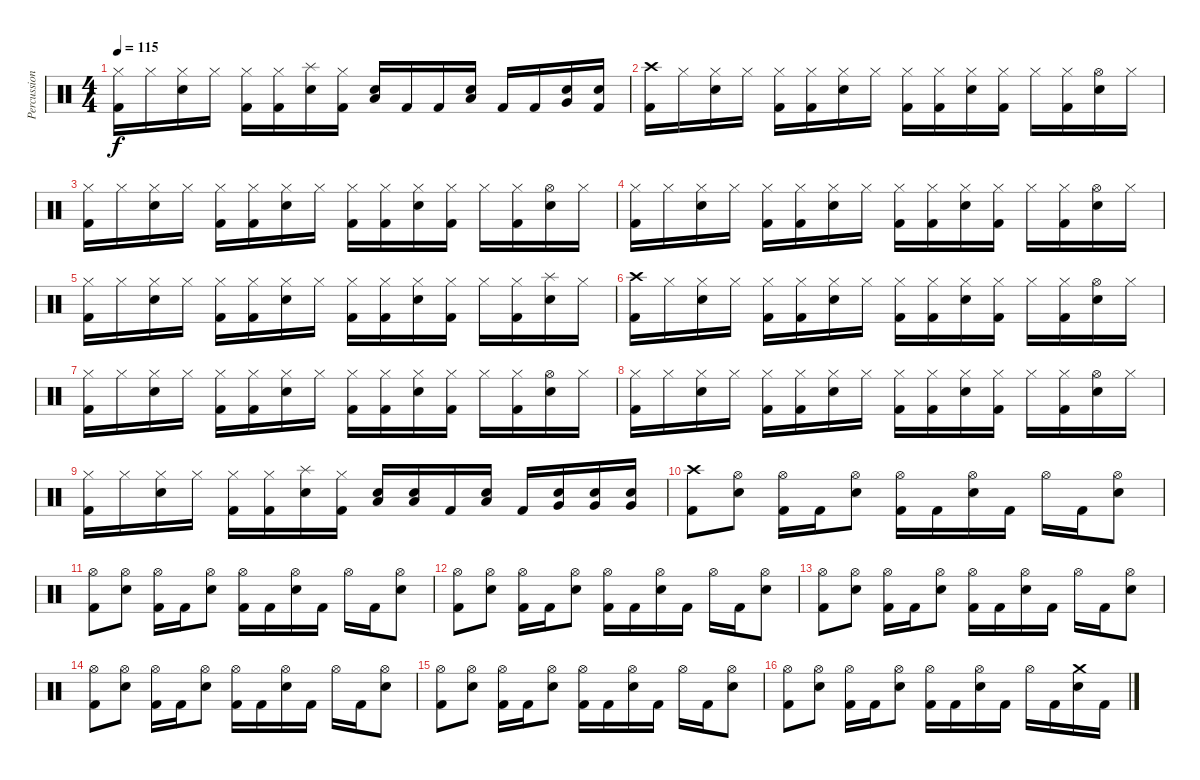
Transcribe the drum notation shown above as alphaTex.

\track ("Percussion" "Percussion") {instrument percussion}
\staff {score}
\articulation defaults
\ts (4 4)
\tempo 115
\clef neutral
\ks c
("Hi-Hat (closed)" "Kick (hit) 2").16{dy f} "Hi-Hat (closed)".16 ("Hi-Hat (closed)" "Electric Snare (hit)").16 "Hi-Hat (closed)".16 ("Hi-Hat (closed)" "Kick (hit) 2").16 ("Hi-Hat (closed)" "Kick (hit) 2").16 ("Splash (hit)" "Electric Snare (hit)").16 ("Hi-Hat (closed)" "Kick (hit) 2").16 ("Low Tom (hit)" "Electric Snare (hit)").16 "Kick (hit) 2".16 "Kick (hit) 2".16 ("Low Tom (hit)" "Electric Snare (hit)").16 "Kick (hit) 2".16 "Kick (hit) 2".16 ("Very Low Tom (hit)" "Electric Snare (hit)").16 ("Electric Snare (hit)" "Kick (hit) 2").16 |
("Crash high (hit)" "Kick (hit) 2").16 "Hi-Hat (closed)".16 ("Hi-Hat (closed)" "Electric Snare (hit)").16 "Hi-Hat (closed)".16 ("Hi-Hat (closed)" "Kick (hit) 2").16 ("Hi-Hat (closed)" "Kick (hit) 2").16 ("Hi-Hat (closed)" "Electric Snare (hit)").16 "Hi-Hat (closed)".16 ("Hi-Hat (closed)" "Kick (hit) 2").16 ("Hi-Hat (closed)" "Kick (hit) 2").16 ("Hi-Hat (closed)" "Electric Snare (hit)").16 ("Hi-Hat (closed)" "Kick (hit) 2").16 "Hi-Hat (closed)".16 ("Hi-Hat (closed)" "Kick (hit) 2").16 ("Hi-Hat (open)" "Electric Snare (hit)").16 "Hi-Hat (closed)".16 |
("Hi-Hat (closed)" "Kick (hit) 2").16 "Hi-Hat (closed)".16 ("Hi-Hat (closed)" "Electric Snare (hit)").16 "Hi-Hat (closed)".16 ("Hi-Hat (closed)" "Kick (hit) 2").16 ("Hi-Hat (closed)" "Kick (hit) 2").16 ("Hi-Hat (closed)" "Electric Snare (hit)").16 "Hi-Hat (closed)".16 ("Hi-Hat (closed)" "Kick (hit) 2").16 ("Hi-Hat (closed)" "Kick (hit) 2").16 ("Hi-Hat (closed)" "Electric Snare (hit)").16 ("Hi-Hat (closed)" "Kick (hit) 2").16 "Hi-Hat (closed)".16 ("Hi-Hat (closed)" "Kick (hit) 2").16 ("Hi-Hat (open)" "Electric Snare (hit)").16 "Hi-Hat (closed)".16 |
("Hi-Hat (closed)" "Kick (hit) 2").16 "Hi-Hat (closed)".16 ("Hi-Hat (closed)" "Electric Snare (hit)").16 "Hi-Hat (closed)".16 ("Hi-Hat (closed)" "Kick (hit) 2").16 ("Hi-Hat (closed)" "Kick (hit) 2").16 ("Hi-Hat (closed)" "Electric Snare (hit)").16 "Hi-Hat (closed)".16 ("Hi-Hat (closed)" "Kick (hit) 2").16 ("Hi-Hat (closed)" "Kick (hit) 2").16 ("Hi-Hat (closed)" "Electric Snare (hit)").16 ("Hi-Hat (closed)" "Kick (hit) 2").16 "Hi-Hat (closed)".16 ("Hi-Hat (closed)" "Kick (hit) 2").16 ("Hi-Hat (open)" "Electric Snare (hit)").16 "Hi-Hat (closed)".16 |
("Hi-Hat (closed)" "Kick (hit) 2").16 "Hi-Hat (closed)".16 ("Hi-Hat (closed)" "Electric Snare (hit)").16 "Hi-Hat (closed)".16 ("Hi-Hat (closed)" "Kick (hit) 2").16 ("Hi-Hat (closed)" "Kick (hit) 2").16 ("Hi-Hat (closed)" "Electric Snare (hit)").16 "Hi-Hat (closed)".16 ("Hi-Hat (closed)" "Kick (hit) 2").16 ("Hi-Hat (closed)" "Kick (hit) 2").16 ("Hi-Hat (closed)" "Electric Snare (hit)").16 ("Hi-Hat (closed)" "Kick (hit) 2").16 "Hi-Hat (closed)".16 ("Hi-Hat (closed)" "Kick (hit) 2").16 ("Splash (hit)" "Electric Snare (hit)").16 "Hi-Hat (closed)".16 |
("Crash high (hit)" "Kick (hit) 2").16 "Hi-Hat (closed)".16 ("Hi-Hat (closed)" "Electric Snare (hit)").16 "Hi-Hat (closed)".16 ("Hi-Hat (closed)" "Kick (hit) 2").16 ("Hi-Hat (closed)" "Kick (hit) 2").16 ("Hi-Hat (closed)" "Electric Snare (hit)").16 "Hi-Hat (closed)".16 ("Hi-Hat (closed)" "Kick (hit) 2").16 ("Hi-Hat (closed)" "Kick (hit) 2").16 ("Hi-Hat (closed)" "Electric Snare (hit)").16 ("Hi-Hat (closed)" "Kick (hit) 2").16 "Hi-Hat (closed)".16 ("Hi-Hat (closed)" "Kick (hit) 2").16 ("Hi-Hat (open)" "Electric Snare (hit)").16 "Hi-Hat (closed)".16 |
("Hi-Hat (closed)" "Kick (hit) 2").16 "Hi-Hat (closed)".16 ("Hi-Hat (closed)" "Electric Snare (hit)").16 "Hi-Hat (closed)".16 ("Hi-Hat (closed)" "Kick (hit) 2").16 ("Hi-Hat (closed)" "Kick (hit) 2").16 ("Hi-Hat (closed)" "Electric Snare (hit)").16 "Hi-Hat (closed)".16 ("Hi-Hat (closed)" "Kick (hit) 2").16 ("Hi-Hat (closed)" "Kick (hit) 2").16 ("Hi-Hat (closed)" "Electric Snare (hit)").16 ("Hi-Hat (closed)" "Kick (hit) 2").16 "Hi-Hat (closed)".16 ("Hi-Hat (closed)" "Kick (hit) 2").16 ("Hi-Hat (open)" "Electric Snare (hit)").16 "Hi-Hat (closed)".16 |
("Hi-Hat (closed)" "Kick (hit) 2").16 "Hi-Hat (closed)".16 ("Hi-Hat (closed)" "Electric Snare (hit)").16 "Hi-Hat (closed)".16 ("Hi-Hat (closed)" "Kick (hit) 2").16 ("Hi-Hat (closed)" "Kick (hit) 2").16 ("Hi-Hat (closed)" "Electric Snare (hit)").16 "Hi-Hat (closed)".16 ("Hi-Hat (closed)" "Kick (hit) 2").16 ("Hi-Hat (closed)" "Kick (hit) 2").16 ("Hi-Hat (closed)" "Electric Snare (hit)").16 ("Hi-Hat (closed)" "Kick (hit) 2").16 "Hi-Hat (closed)".16 ("Hi-Hat (closed)" "Kick (hit) 2").16 ("Hi-Hat (open)" "Electric Snare (hit)").16 "Hi-Hat (closed)".16 |
("Hi-Hat (closed)" "Kick (hit) 2").16 "Hi-Hat (closed)".16 ("Hi-Hat (closed)" "Electric Snare (hit)").16 "Hi-Hat (closed)".16 ("Hi-Hat (closed)" "Kick (hit) 2").16 ("Hi-Hat (closed)" "Kick (hit) 2").16 ("Splash (hit)" "Electric Snare (hit)").16 ("Hi-Hat (closed)" "Kick (hit) 2").16 ("Low Tom (hit)" "Electric Snare (hit)").16 ("Low Tom (hit)" "Electric Snare (hit)").16 "Kick (hit) 2".16 ("Low Tom (hit)" "Electric Snare (hit)").16 "Kick (hit) 2".16 ("Very Low Tom (hit)" "Electric Snare (hit)").16 ("Very Low Tom (hit)" "Electric Snare (hit)").16 ("Very Low Tom (hit)" "Electric Snare (hit)").16 |
("Crash high (hit)" "Kick (hit) 2").8 ("Hi-Hat (open)" "Electric Snare (hit)").8 ("Hi-Hat (open)" "Kick (hit) 2").16 "Kick (hit) 2".16 ("Hi-Hat (open)" "Electric Snare (hit)").8 ("Hi-Hat (open)" "Kick (hit) 2").16 "Kick (hit) 2".16 ("Hi-Hat (open)" "Electric Snare (hit)").16 "Kick (hit) 2".16 "Hi-Hat (open)".16 "Kick (hit) 2".16 ("Hi-Hat (open)" "Electric Snare (hit)").8 |
("Hi-Hat (open)" "Kick (hit) 2").8 ("Hi-Hat (open)" "Electric Snare (hit)").8 ("Hi-Hat (open)" "Kick (hit) 2").16 "Kick (hit) 2".16 ("Hi-Hat (open)" "Electric Snare (hit)").8 ("Hi-Hat (open)" "Kick (hit) 2").16 "Kick (hit) 2".16 ("Hi-Hat (open)" "Electric Snare (hit)").16 "Kick (hit) 2".16 "Hi-Hat (open)".16 "Kick (hit) 2".16 ("Hi-Hat (open)" "Electric Snare (hit)").8 |
("Hi-Hat (open)" "Kick (hit) 2").8 ("Hi-Hat (open)" "Electric Snare (hit)").8 ("Hi-Hat (open)" "Kick (hit) 2").16 "Kick (hit) 2".16 ("Hi-Hat (open)" "Electric Snare (hit)").8 ("Hi-Hat (open)" "Kick (hit) 2").16 "Kick (hit) 2".16 ("Hi-Hat (open)" "Electric Snare (hit)").16 "Kick (hit) 2".16 "Hi-Hat (open)".16 "Kick (hit) 2".16 ("Hi-Hat (open)" "Electric Snare (hit)").8 |
("Hi-Hat (open)" "Kick (hit) 2").8 ("Hi-Hat (open)" "Electric Snare (hit)").8 ("Hi-Hat (open)" "Kick (hit) 2").16 "Kick (hit) 2".16 ("Hi-Hat (open)" "Electric Snare (hit)").8 ("Hi-Hat (open)" "Kick (hit) 2").16 "Kick (hit) 2".16 ("Hi-Hat (open)" "Electric Snare (hit)").16 "Kick (hit) 2".16 "Hi-Hat (open)".16 "Kick (hit) 2".16 ("Hi-Hat (open)" "Electric Snare (hit)").8 |
("Hi-Hat (open)" "Kick (hit) 2").8 ("Hi-Hat (open)" "Electric Snare (hit)").8 ("Hi-Hat (open)" "Kick (hit) 2").16 "Kick (hit) 2".16 ("Hi-Hat (open)" "Electric Snare (hit)").8 ("Hi-Hat (open)" "Kick (hit) 2").16 "Kick (hit) 2".16 ("Hi-Hat (open)" "Electric Snare (hit)").16 "Kick (hit) 2".16 "Hi-Hat (open)".16 "Kick (hit) 2".16 ("Hi-Hat (open)" "Electric Snare (hit)").8 |
("Hi-Hat (open)" "Kick (hit) 2").8 ("Hi-Hat (open)" "Electric Snare (hit)").8 ("Hi-Hat (open)" "Kick (hit) 2").16 "Kick (hit) 2".16 ("Hi-Hat (open)" "Electric Snare (hit)").8 ("Hi-Hat (open)" "Kick (hit) 2").16 "Kick (hit) 2".16 ("Hi-Hat (open)" "Electric Snare (hit)").16 "Kick (hit) 2".16 "Hi-Hat (open)".16 "Kick (hit) 2".16 ("Hi-Hat (open)" "Electric Snare (hit)").8 |
("Hi-Hat (open)" "Kick (hit) 2").8 ("Hi-Hat (open)" "Electric Snare (hit)").8 ("Hi-Hat (open)" "Kick (hit) 2").16 "Kick (hit) 2".16 ("Hi-Hat (open)" "Electric Snare (hit)").8 ("Hi-Hat (open)" "Kick (hit) 2").16 "Kick (hit) 2".16 ("Hi-Hat (open)" "Electric Snare (hit)").16 "Kick (hit) 2".16 "Hi-Hat (open)".16 "Kick (hit) 2".16 ("Crash medium (hit)" "Electric Snare (hit)").16 "Kick (hit) 2".16
